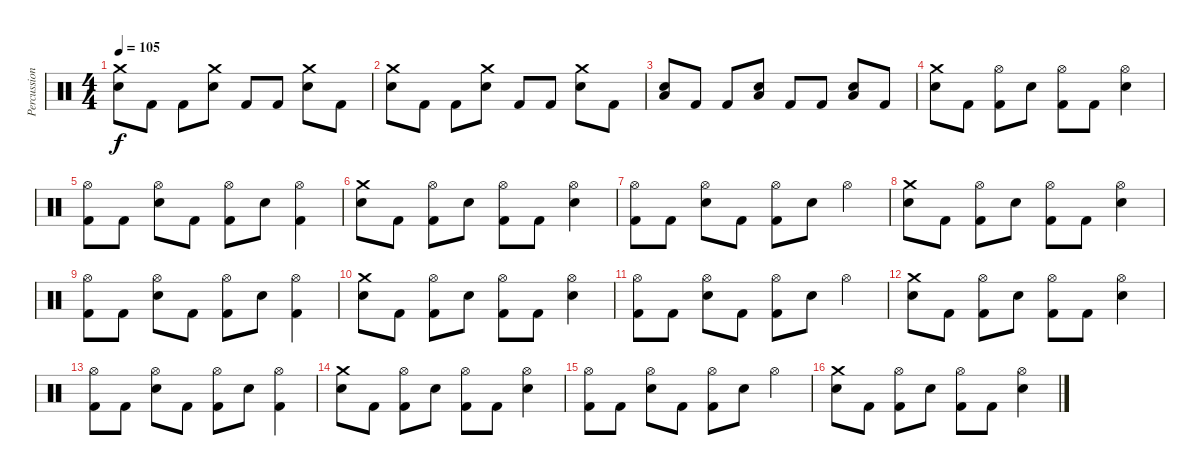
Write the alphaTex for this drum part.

\track ("Percussion" "Percussion") {instrument percussion}
\staff {score}
\articulation defaults
\ts (4 4)
\tempo 105
\clef neutral
\ks c
("Crash medium (hit)" "Snare (hit) 2").8{dy f} "Kick (hit) 2".8 "Kick (hit) 2".8 ("Crash medium (hit)" "Snare (hit) 2").8 "Kick (hit) 2".8 "Kick (hit) 2".8 ("Crash medium (hit)" "Snare (hit) 2").8 "Kick (hit) 2".8 |
("Crash medium (hit)" "Snare (hit) 2").8 "Kick (hit) 2".8 "Kick (hit) 2".8 ("Crash medium (hit)" "Snare (hit) 2").8 "Kick (hit) 2".8 "Kick (hit) 2".8 ("Crash medium (hit)" "Snare (hit) 2").8 "Kick (hit) 2".8 |
("Low Floor Tom (hit)" "Snare (hit) 2").8 "Kick (hit) 2".8 "Kick (hit) 2".8 ("Low Floor Tom (hit)" "Snare (hit) 2").8 "Kick (hit) 2".8 "Kick (hit) 2".8 ("Low Floor Tom (hit)" "Snare (hit) 2").8 "Kick (hit) 2".8 |
("Crash medium (hit)" "Snare (hit) 2").8 "Kick (hit) 2".8 ("Hi-Hat (open)" "Kick (hit) 2").8 "Snare (hit) 2".8 ("Hi-Hat (open)" "Kick (hit) 2").8 "Kick (hit) 2".8 ("Hi-Hat (open)" "Snare (hit) 2").4 |
("Hi-Hat (open)" "Kick (hit) 2").8 "Kick (hit) 2".8 ("Hi-Hat (open)" "Snare (hit) 2").8 "Kick (hit) 2".8 ("Hi-Hat (open)" "Kick (hit) 2").8 "Snare (hit) 2".8 ("Hi-Hat (open)" "Kick (hit) 2").4 |
("Crash medium (hit)" "Snare (hit) 2").8 "Kick (hit) 2".8 ("Hi-Hat (open)" "Kick (hit) 2").8 "Snare (hit) 2".8 ("Hi-Hat (open)" "Kick (hit) 2").8 "Kick (hit) 2".8 ("Hi-Hat (open)" "Snare (hit) 2").4 |
("Hi-Hat (open)" "Kick (hit) 2").8 "Kick (hit) 2".8 ("Hi-Hat (open)" "Snare (hit) 2").8 "Kick (hit) 2".8 ("Hi-Hat (open)" "Kick (hit) 2").8 "Snare (hit) 2".8 "Hi-Hat (open)".4 |
("Crash medium (hit)" "Snare (hit) 2").8 "Kick (hit) 2".8 ("Hi-Hat (open)" "Kick (hit) 2").8 "Snare (hit) 2".8 ("Hi-Hat (open)" "Kick (hit) 2").8 "Kick (hit) 2".8 ("Hi-Hat (open)" "Snare (hit) 2").4 |
("Hi-Hat (open)" "Kick (hit) 2").8 "Kick (hit) 2".8 ("Hi-Hat (open)" "Snare (hit) 2").8 "Kick (hit) 2".8 ("Hi-Hat (open)" "Kick (hit) 2").8 "Snare (hit) 2".8 ("Hi-Hat (open)" "Kick (hit) 2").4 |
("Crash medium (hit)" "Snare (hit) 2").8 "Kick (hit) 2".8 ("Hi-Hat (open)" "Kick (hit) 2").8 "Snare (hit) 2".8 ("Hi-Hat (open)" "Kick (hit) 2").8 "Kick (hit) 2".8 ("Hi-Hat (open)" "Snare (hit) 2").4 |
("Hi-Hat (open)" "Kick (hit) 2").8 "Kick (hit) 2".8 ("Hi-Hat (open)" "Snare (hit) 2").8 "Kick (hit) 2".8 ("Hi-Hat (open)" "Kick (hit) 2").8 "Snare (hit) 2".8 "Hi-Hat (open)".4 |
("Crash medium (hit)" "Snare (hit) 2").8 "Kick (hit) 2".8 ("Hi-Hat (open)" "Kick (hit) 2").8 "Snare (hit) 2".8 ("Hi-Hat (open)" "Kick (hit) 2").8 "Kick (hit) 2".8 ("Hi-Hat (open)" "Snare (hit) 2").4 |
("Hi-Hat (open)" "Kick (hit) 2").8 "Kick (hit) 2".8 ("Hi-Hat (open)" "Snare (hit) 2").8 "Kick (hit) 2".8 ("Hi-Hat (open)" "Kick (hit) 2").8 "Snare (hit) 2".8 ("Hi-Hat (open)" "Kick (hit) 2").4 |
("Crash medium (hit)" "Snare (hit) 2").8 "Kick (hit) 2".8 ("Hi-Hat (open)" "Kick (hit) 2").8 "Snare (hit) 2".8 ("Hi-Hat (open)" "Kick (hit) 2").8 "Kick (hit) 2".8 ("Hi-Hat (open)" "Snare (hit) 2").4 |
("Hi-Hat (open)" "Kick (hit) 2").8 "Kick (hit) 2".8 ("Hi-Hat (open)" "Snare (hit) 2").8 "Kick (hit) 2".8 ("Hi-Hat (open)" "Kick (hit) 2").8 "Snare (hit) 2".8 "Hi-Hat (open)".4 |
("Crash medium (hit)" "Snare (hit) 2").8 "Kick (hit) 2".8 ("Hi-Hat (open)" "Kick (hit) 2").8 "Snare (hit) 2".8 ("Hi-Hat (open)" "Kick (hit) 2").8 "Kick (hit) 2".8 ("Hi-Hat (open)" "Snare (hit) 2").4
